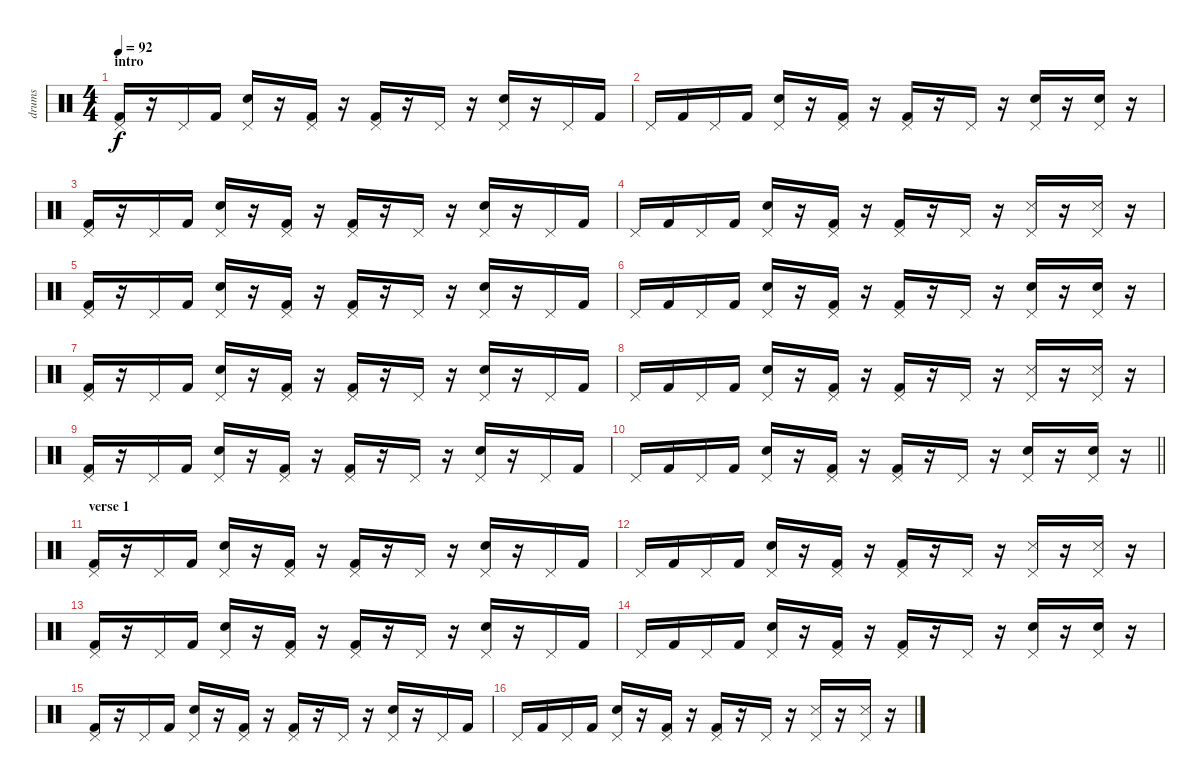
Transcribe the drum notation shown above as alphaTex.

\track ("drums" "drums") {instrument percussion}
\staff {score}
\articulation defaults
\ts (4 4)
\section ("" "intro")
\tempo 92
\clef neutral
\ks c
("Kick (hit) 2" "Pedal Hi-Hat (hit)").16{dy f} r.16 "Pedal Hi-Hat (hit)".16 "Kick (hit) 2".16 ("Electric Snare (hit)" "Pedal Hi-Hat (hit)").16 r.16 ("Kick (hit) 2" "Pedal Hi-Hat (hit)").16 r.16 ("Kick (hit) 2" "Pedal Hi-Hat (hit)").16 r.16 "Pedal Hi-Hat (hit)".16 r.16 ("Electric Snare (hit)" "Pedal Hi-Hat (hit)").16 r.16 "Pedal Hi-Hat (hit)".16 "Kick (hit) 2".16 |
"Pedal Hi-Hat (hit)".16 "Kick (hit) 2".16 "Pedal Hi-Hat (hit)".16 "Kick (hit) 2".16 ("Electric Snare (hit)" "Pedal Hi-Hat (hit)").16 r.16 ("Kick (hit) 2" "Pedal Hi-Hat (hit)").16 r.16 ("Kick (hit) 2" "Pedal Hi-Hat (hit)").16 r.16 "Pedal Hi-Hat (hit)".16 r.16 ("Electric Snare (hit)" "Pedal Hi-Hat (hit)").16 r.16 ("Electric Snare (hit)" "Pedal Hi-Hat (hit)").16 r.16 |
("Kick (hit) 2" "Pedal Hi-Hat (hit)").16 r.16 "Pedal Hi-Hat (hit)".16 "Kick (hit) 2".16 ("Electric Snare (hit)" "Pedal Hi-Hat (hit)").16 r.16 ("Kick (hit) 2" "Pedal Hi-Hat (hit)").16 r.16 ("Kick (hit) 2" "Pedal Hi-Hat (hit)").16 r.16 "Pedal Hi-Hat (hit)".16 r.16 ("Electric Snare (hit)" "Pedal Hi-Hat (hit)").16 r.16 "Pedal Hi-Hat (hit)".16 "Kick (hit) 2".16 |
"Pedal Hi-Hat (hit)".16 "Kick (hit) 2".16 "Pedal Hi-Hat (hit)".16 "Kick (hit) 2".16 ("Electric Snare (hit)" "Pedal Hi-Hat (hit)").16 r.16 ("Kick (hit) 2" "Pedal Hi-Hat (hit)").16 r.16 ("Kick (hit) 2" "Pedal Hi-Hat (hit)").16 r.16 "Pedal Hi-Hat (hit)".16 r.16 ("Snare (side stick) 3" "Pedal Hi-Hat (hit)").16 r.16 ("Snare (side stick) 3" "Pedal Hi-Hat (hit)").16 r.16 |
("Kick (hit) 2" "Pedal Hi-Hat (hit)").16 r.16 "Pedal Hi-Hat (hit)".16 "Kick (hit) 2".16 ("Electric Snare (hit)" "Pedal Hi-Hat (hit)").16 r.16 ("Kick (hit) 2" "Pedal Hi-Hat (hit)").16 r.16 ("Kick (hit) 2" "Pedal Hi-Hat (hit)").16 r.16 "Pedal Hi-Hat (hit)".16 r.16 ("Electric Snare (hit)" "Pedal Hi-Hat (hit)").16 r.16 "Pedal Hi-Hat (hit)".16 "Kick (hit) 2".16 |
"Pedal Hi-Hat (hit)".16 "Kick (hit) 2".16 "Pedal Hi-Hat (hit)".16 "Kick (hit) 2".16 ("Electric Snare (hit)" "Pedal Hi-Hat (hit)").16 r.16 ("Kick (hit) 2" "Pedal Hi-Hat (hit)").16 r.16 ("Kick (hit) 2" "Pedal Hi-Hat (hit)").16 r.16 "Pedal Hi-Hat (hit)".16 r.16 ("Electric Snare (hit)" "Pedal Hi-Hat (hit)").16 r.16 ("Electric Snare (hit)" "Pedal Hi-Hat (hit)").16 r.16 |
("Kick (hit) 2" "Pedal Hi-Hat (hit)").16 r.16 "Pedal Hi-Hat (hit)".16 "Kick (hit) 2".16 ("Electric Snare (hit)" "Pedal Hi-Hat (hit)").16 r.16 ("Kick (hit) 2" "Pedal Hi-Hat (hit)").16 r.16 ("Kick (hit) 2" "Pedal Hi-Hat (hit)").16 r.16 "Pedal Hi-Hat (hit)".16 r.16 ("Electric Snare (hit)" "Pedal Hi-Hat (hit)").16 r.16 "Pedal Hi-Hat (hit)".16 "Kick (hit) 2".16 |
"Pedal Hi-Hat (hit)".16 "Kick (hit) 2".16 "Pedal Hi-Hat (hit)".16 "Kick (hit) 2".16 ("Electric Snare (hit)" "Pedal Hi-Hat (hit)").16 r.16 ("Kick (hit) 2" "Pedal Hi-Hat (hit)").16 r.16 ("Kick (hit) 2" "Pedal Hi-Hat (hit)").16 r.16 "Pedal Hi-Hat (hit)".16 r.16 ("Snare (side stick) 3" "Pedal Hi-Hat (hit)").16 r.16 ("Snare (side stick) 3" "Pedal Hi-Hat (hit)").16 r.16 |
("Kick (hit) 2" "Pedal Hi-Hat (hit)").16 r.16 "Pedal Hi-Hat (hit)".16 "Kick (hit) 2".16 ("Electric Snare (hit)" "Pedal Hi-Hat (hit)").16 r.16 ("Kick (hit) 2" "Pedal Hi-Hat (hit)").16 r.16 ("Kick (hit) 2" "Pedal Hi-Hat (hit)").16 r.16 "Pedal Hi-Hat (hit)".16 r.16 ("Electric Snare (hit)" "Pedal Hi-Hat (hit)").16 r.16 "Pedal Hi-Hat (hit)".16 "Kick (hit) 2".16 |
\barLineRight lightlight "Pedal Hi-Hat (hit)".16 "Kick (hit) 2".16 "Pedal Hi-Hat (hit)".16 "Kick (hit) 2".16
("Electric Snare (hit)" "Pedal Hi-Hat (hit)").16 r.16 ("Kick (hit) 2" "Pedal Hi-Hat (hit)").16 r.16 ("Kick (hit) 2" "Pedal Hi-Hat (hit)").16 r.16 "Pedal Hi-Hat (hit)".16 r.16 ("Electric Snare (hit)" "Pedal Hi-Hat (hit)").16 r.16 ("Electric Snare (hit)" "Pedal Hi-Hat (hit)").16 r.16 |
\section ("" "verse 1")
("Kick (hit) 2" "Pedal Hi-Hat (hit)").16 r.16 "Pedal Hi-Hat (hit)".16 "Kick (hit) 2".16 ("Electric Snare (hit)" "Pedal Hi-Hat (hit)").16 r.16 ("Kick (hit) 2" "Pedal Hi-Hat (hit)").16 r.16 ("Kick (hit) 2" "Pedal Hi-Hat (hit)").16 r.16 "Pedal Hi-Hat (hit)".16 r.16 ("Electric Snare (hit)" "Pedal Hi-Hat (hit)").16 r.16 "Pedal Hi-Hat (hit)".16 "Kick (hit) 2".16 |
"Pedal Hi-Hat (hit)".16 "Kick (hit) 2".16 "Pedal Hi-Hat (hit)".16 "Kick (hit) 2".16 ("Electric Snare (hit)" "Pedal Hi-Hat (hit)").16 r.16 ("Kick (hit) 2" "Pedal Hi-Hat (hit)").16 r.16 ("Kick (hit) 2" "Pedal Hi-Hat (hit)").16 r.16 "Pedal Hi-Hat (hit)".16 r.16 ("Snare (side stick) 3" "Pedal Hi-Hat (hit)").16 r.16 ("Snare (side stick) 3" "Pedal Hi-Hat (hit)").16 r.16 |
("Kick (hit) 2" "Pedal Hi-Hat (hit)").16 r.16 "Pedal Hi-Hat (hit)".16 "Kick (hit) 2".16 ("Electric Snare (hit)" "Pedal Hi-Hat (hit)").16 r.16 ("Kick (hit) 2" "Pedal Hi-Hat (hit)").16 r.16 ("Kick (hit) 2" "Pedal Hi-Hat (hit)").16 r.16 "Pedal Hi-Hat (hit)".16 r.16 ("Electric Snare (hit)" "Pedal Hi-Hat (hit)").16 r.16 "Pedal Hi-Hat (hit)".16 "Kick (hit) 2".16 |
"Pedal Hi-Hat (hit)".16 "Kick (hit) 2".16 "Pedal Hi-Hat (hit)".16 "Kick (hit) 2".16 ("Electric Snare (hit)" "Pedal Hi-Hat (hit)").16 r.16 ("Kick (hit) 2" "Pedal Hi-Hat (hit)").16 r.16 ("Kick (hit) 2" "Pedal Hi-Hat (hit)").16 r.16 "Pedal Hi-Hat (hit)".16 r.16 ("Electric Snare (hit)" "Pedal Hi-Hat (hit)").16 r.16 ("Electric Snare (hit)" "Pedal Hi-Hat (hit)").16 r.16 |
("Kick (hit) 2" "Pedal Hi-Hat (hit)").16 r.16 "Pedal Hi-Hat (hit)".16 "Kick (hit) 2".16 ("Electric Snare (hit)" "Pedal Hi-Hat (hit)").16 r.16 ("Kick (hit) 2" "Pedal Hi-Hat (hit)").16 r.16 ("Kick (hit) 2" "Pedal Hi-Hat (hit)").16 r.16 "Pedal Hi-Hat (hit)".16 r.16 ("Electric Snare (hit)" "Pedal Hi-Hat (hit)").16 r.16 "Pedal Hi-Hat (hit)".16 "Kick (hit) 2".16 |
"Pedal Hi-Hat (hit)".16 "Kick (hit) 2".16 "Pedal Hi-Hat (hit)".16 "Kick (hit) 2".16 ("Electric Snare (hit)" "Pedal Hi-Hat (hit)").16 r.16 ("Kick (hit) 2" "Pedal Hi-Hat (hit)").16 r.16 ("Kick (hit) 2" "Pedal Hi-Hat (hit)").16 r.16 "Pedal Hi-Hat (hit)".16 r.16 ("Snare (side stick) 3" "Pedal Hi-Hat (hit)").16 r.16 ("Snare (side stick) 3" "Pedal Hi-Hat (hit)").16 r.16
